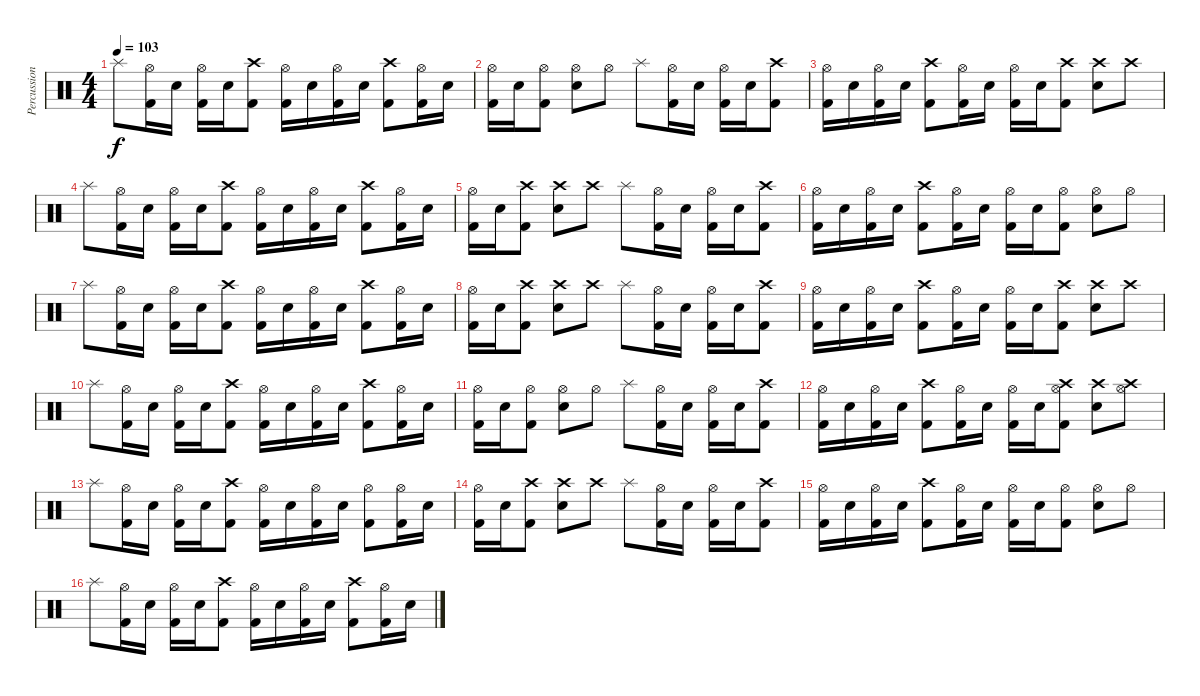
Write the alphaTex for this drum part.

\track ("Percussion" "Percussion") {instrument percussion}
\staff {score}
\articulation defaults
\ts (4 4)
\tempo 103
\clef neutral
\ks c "Splash (hit)".8{dy f}
("Kick (hit) 2" "Hi-Hat (open)").16 "Snare (hit) 2".16 ("Kick (hit) 2" "Hi-Hat (open)").16 "Snare (hit) 2".16 ("Kick (hit) 2" "Crash high (hit)").8 ("Kick (hit) 2" "Hi-Hat (open)").16 "Snare (hit) 2".16 ("Kick (hit) 2" "Hi-Hat (open)").16 "Snare (hit) 2".16 ("Kick (hit) 2" "Crash high (hit)").8 ("Kick (hit) 2" "Hi-Hat (open)").16 "Snare (hit) 2".16 |
("Kick (hit) 2" "Hi-Hat (open)").16 "Snare (hit) 2".16 ("Kick (hit) 2" "Hi-Hat (open)").8 ("Snare (hit) 2" "Hi-Hat (open)").8 "Hi-Hat (open)".8 "Splash (hit)".8 ("Kick (hit) 2" "Hi-Hat (open)").16 "Snare (hit) 2".16 ("Kick (hit) 2" "Hi-Hat (open)").16 "Snare (hit) 2".16 ("Kick (hit) 2" "Crash high (hit)").8 |
("Kick (hit) 2" "Hi-Hat (open)").16 "Snare (hit) 2".16 ("Kick (hit) 2" "Hi-Hat (open)").16 "Snare (hit) 2".16 ("Kick (hit) 2" "Crash high (hit)").8 ("Kick (hit) 2" "Hi-Hat (open)").16 "Snare (hit) 2".16 ("Kick (hit) 2" "Hi-Hat (open)").16 "Snare (hit) 2".16 ("Kick (hit) 2" "Crash high (hit)").8 ("Snare (hit) 2" "Crash high (hit)").8 "Crash high (hit)".8 |
"Splash (hit)".8 ("Kick (hit) 2" "Hi-Hat (open)").16 "Snare (hit) 2".16 ("Kick (hit) 2" "Hi-Hat (open)").16 "Snare (hit) 2".16 ("Kick (hit) 2" "Crash high (hit)").8 ("Kick (hit) 2" "Hi-Hat (open)").16 "Snare (hit) 2".16 ("Kick (hit) 2" "Hi-Hat (open)").16 "Snare (hit) 2".16 ("Kick (hit) 2" "Crash high (hit)").8 ("Kick (hit) 2" "Hi-Hat (open)").16 "Snare (hit) 2".16 |
("Kick (hit) 2" "Hi-Hat (open)").16 "Snare (hit) 2".16 ("Kick (hit) 2" "Crash high (hit)").8 ("Snare (hit) 2" "Crash high (hit)").8 "Crash high (hit)".8 "Splash (hit)".8 ("Kick (hit) 2" "Hi-Hat (open)").16 "Snare (hit) 2".16 ("Kick (hit) 2" "Hi-Hat (open)").16 "Snare (hit) 2".16 ("Kick (hit) 2" "Crash high (hit)").8 |
("Kick (hit) 2" "Hi-Hat (open)").16 "Snare (hit) 2".16 ("Kick (hit) 2" "Hi-Hat (open)").16 "Snare (hit) 2".16 ("Kick (hit) 2" "Crash high (hit)").8 ("Kick (hit) 2" "Hi-Hat (open)").16 "Snare (hit) 2".16 ("Kick (hit) 2" "Hi-Hat (open)").16 "Snare (hit) 2".16 ("Kick (hit) 2" "Hi-Hat (open)").8 ("Snare (hit) 2" "Hi-Hat (open)").8 "Hi-Hat (open)".8 |
"Splash (hit)".8 ("Kick (hit) 2" "Hi-Hat (open)").16 "Snare (hit) 2".16 ("Kick (hit) 2" "Hi-Hat (open)").16 "Snare (hit) 2".16 ("Kick (hit) 2" "Crash high (hit)").8 ("Kick (hit) 2" "Hi-Hat (open)").16 "Snare (hit) 2".16 ("Kick (hit) 2" "Hi-Hat (open)").16 "Snare (hit) 2".16 ("Kick (hit) 2" "Crash high (hit)").8 ("Kick (hit) 2" "Hi-Hat (open)").16 "Snare (hit) 2".16 |
("Kick (hit) 2" "Hi-Hat (open)").16 "Snare (hit) 2".16 ("Kick (hit) 2" "Crash high (hit)").8 ("Snare (hit) 2" "Crash high (hit)").8 "Crash high (hit)".8 "Splash (hit)".8 ("Kick (hit) 2" "Hi-Hat (open)").16 "Snare (hit) 2".16 ("Kick (hit) 2" "Hi-Hat (open)").16 "Snare (hit) 2".16 ("Kick (hit) 2" "Crash high (hit)").8 |
("Kick (hit) 2" "Hi-Hat (open)").16 "Snare (hit) 2".16 ("Kick (hit) 2" "Hi-Hat (open)").16 "Snare (hit) 2".16 ("Kick (hit) 2" "Crash high (hit)").8 ("Kick (hit) 2" "Hi-Hat (open)").16 "Snare (hit) 2".16 ("Kick (hit) 2" "Hi-Hat (open)").16 "Snare (hit) 2".16 ("Kick (hit) 2" "Crash high (hit)").8 ("Snare (hit) 2" "Crash high (hit)").8 "Crash high (hit)".8 |
"Splash (hit)".8 ("Kick (hit) 2" "Hi-Hat (open)").16 "Snare (hit) 2".16 ("Kick (hit) 2" "Hi-Hat (open)").16 "Snare (hit) 2".16 ("Kick (hit) 2" "Crash high (hit)").8 ("Kick (hit) 2" "Hi-Hat (open)").16 "Snare (hit) 2".16 ("Kick (hit) 2" "Hi-Hat (open)").16 "Snare (hit) 2".16 ("Kick (hit) 2" "Crash high (hit)").8 ("Kick (hit) 2" "Hi-Hat (open)").16 "Snare (hit) 2".16 |
("Kick (hit) 2" "Hi-Hat (open)").16 "Snare (hit) 2".16 ("Kick (hit) 2" "Hi-Hat (open)").8 ("Snare (hit) 2" "Hi-Hat (open)").8 "Hi-Hat (open)".8 "Splash (hit)".8 ("Kick (hit) 2" "Hi-Hat (open)").16 "Snare (hit) 2".16 ("Kick (hit) 2" "Hi-Hat (open)").16 "Snare (hit) 2".16 ("Kick (hit) 2" "Crash high (hit)").8 |
("Kick (hit) 2" "Hi-Hat (open)").16 "Snare (hit) 2".16 ("Kick (hit) 2" "Hi-Hat (open)").16 "Snare (hit) 2".16 ("Kick (hit) 2" "Crash high (hit)").8 ("Kick (hit) 2" "Hi-Hat (open)").16 "Snare (hit) 2".16 ("Kick (hit) 2" "Hi-Hat (open)").16 "Snare (hit) 2".16 ("Kick (hit) 2" "Hi-Hat (open)" "Crash high (hit)").8 ("Snare (hit) 2" "Crash high (hit)").8 ("Hi-Hat (open)" "Crash high (hit)").8 |
"Splash (hit)".8 ("Kick (hit) 2" "Hi-Hat (open)").16 "Snare (hit) 2".16 ("Kick (hit) 2" "Hi-Hat (open)").16 "Snare (hit) 2".16 ("Kick (hit) 2" "Crash high (hit)").8 ("Kick (hit) 2" "Hi-Hat (open)").16 "Snare (hit) 2".16 ("Kick (hit) 2" "Hi-Hat (open)").16 "Snare (hit) 2".16 ("Kick (hit) 2" "Hi-Hat (open)").8 ("Kick (hit) 2" "Hi-Hat (open)").16 "Snare (hit) 2".16 |
("Kick (hit) 2" "Hi-Hat (open)").16 "Snare (hit) 2".16 ("Kick (hit) 2" "Crash high (hit)").8 ("Snare (hit) 2" "Crash high (hit)").8 "Crash high (hit)".8 "Splash (hit)".8 ("Kick (hit) 2" "Hi-Hat (open)").16 "Snare (hit) 2".16 ("Kick (hit) 2" "Hi-Hat (open)").16 "Snare (hit) 2".16 ("Kick (hit) 2" "Crash high (hit)").8 |
("Kick (hit) 2" "Hi-Hat (open)").16 "Snare (hit) 2".16 ("Kick (hit) 2" "Hi-Hat (open)").16 "Snare (hit) 2".16 ("Kick (hit) 2" "Crash high (hit)").8 ("Kick (hit) 2" "Hi-Hat (open)").16 "Snare (hit) 2".16 ("Kick (hit) 2" "Hi-Hat (open)").16 "Snare (hit) 2".16 ("Kick (hit) 2" "Hi-Hat (open)").8 ("Snare (hit) 2" "Hi-Hat (open)").8 "Hi-Hat (open)".8 |
"Splash (hit)".8 ("Kick (hit) 2" "Hi-Hat (open)").16 "Snare (hit) 2".16 ("Kick (hit) 2" "Hi-Hat (open)").16 "Snare (hit) 2".16 ("Kick (hit) 2" "Crash high (hit)").8 ("Kick (hit) 2" "Hi-Hat (open)").16 "Snare (hit) 2".16 ("Kick (hit) 2" "Hi-Hat (open)").16 "Snare (hit) 2".16 ("Kick (hit) 2" "Crash high (hit)").8 ("Kick (hit) 2" "Hi-Hat (open)").16 "Snare (hit) 2".16
